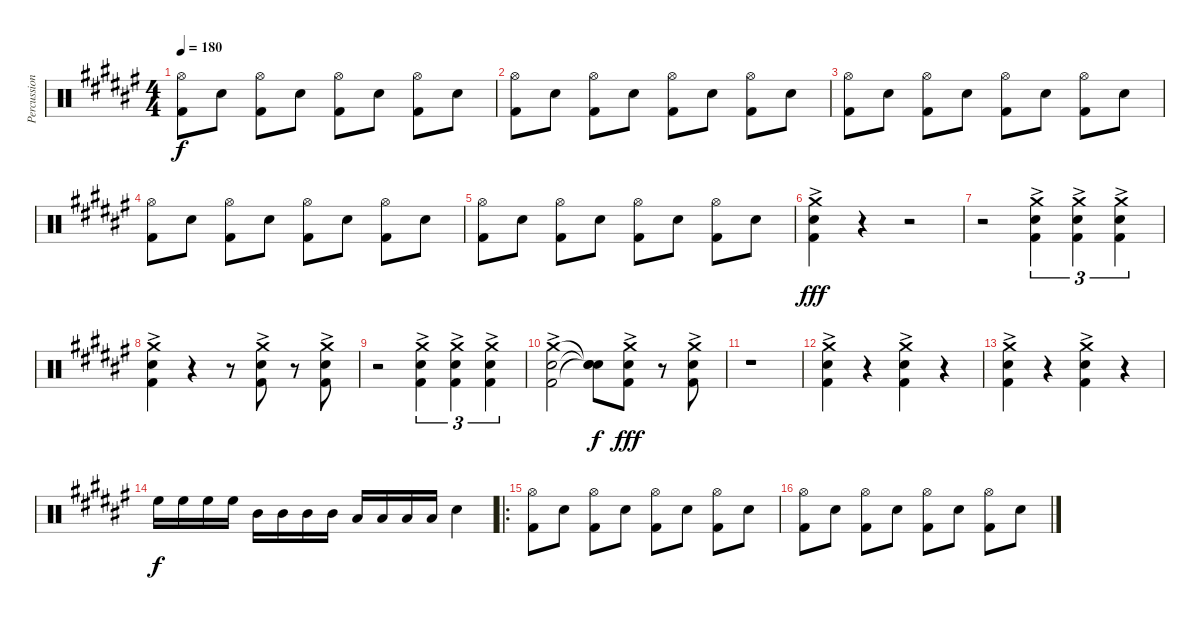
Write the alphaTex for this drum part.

\track ("Percussion" "Percussion") {instrument percussion}
\staff {score}
\articulation defaults
\ts (4 4)
\tempo 180
\clef neutral
\ks f#
("Hi-Hat (open)" "Kick (hit) 2").8{dy f} "Snare (hit) 2".8 ("Hi-Hat (open)" "Kick (hit) 2").8 "Snare (hit) 2".8 ("Hi-Hat (open)" "Kick (hit) 2").8 "Snare (hit) 2".8 ("Hi-Hat (open)" "Kick (hit) 2").8 "Snare (hit) 2".8 |
("Hi-Hat (open)" "Kick (hit) 2").8 "Snare (hit) 2".8 ("Hi-Hat (open)" "Kick (hit) 2").8 "Snare (hit) 2".8 ("Hi-Hat (open)" "Kick (hit) 2").8 "Snare (hit) 2".8 ("Hi-Hat (open)" "Kick (hit) 2").8 "Snare (hit) 2".8 |
("Hi-Hat (open)" "Kick (hit) 2").8 "Snare (hit) 2".8 ("Hi-Hat (open)" "Kick (hit) 2").8 "Snare (hit) 2".8 ("Hi-Hat (open)" "Kick (hit) 2").8 "Snare (hit) 2".8 ("Hi-Hat (open)" "Kick (hit) 2").8 "Snare (hit) 2".8 |
("Hi-Hat (open)" "Kick (hit) 2").8 "Snare (hit) 2".8 ("Hi-Hat (open)" "Kick (hit) 2").8 "Snare (hit) 2".8 ("Hi-Hat (open)" "Kick (hit) 2").8 "Snare (hit) 2".8 ("Hi-Hat (open)" "Kick (hit) 2").8 "Snare (hit) 2".8 |
("Hi-Hat (open)" "Kick (hit) 2").8 "Snare (hit) 2".8 ("Hi-Hat (open)" "Kick (hit) 2").8 "Snare (hit) 2".8 ("Hi-Hat (open)" "Kick (hit) 2").8 "Snare (hit) 2".8 ("Hi-Hat (open)" "Kick (hit) 2").8 "Snare (hit) 2".8 |
("Crash medium (hit)"{ac} "Snare (hit) 2"{ac} "Kick (hit) 2"{ac}).4{dy fff} r.4 r.2 |
r.2 ("Crash medium (hit)"{ac} "Snare (hit) 2"{ac} "Kick (hit) 2"{ac}).4{tu (3 2)} ("Crash medium (hit)"{ac} "Snare (hit) 2"{ac} "Kick (hit) 2"{ac}).4{tu (3 2)} ("Crash medium (hit)"{ac} "Snare (hit) 2"{ac} "Kick (hit) 2"{ac}).4{tu (3 2)} |
("Crash medium (hit)"{ac} "Snare (hit) 2"{ac} "Kick (hit) 2"{ac}).4 r.4 r.8 ("Crash medium (hit)"{ac} "Snare (hit) 2"{ac} "Kick (hit) 2"{ac}).8 r.8 ("Crash medium (hit)"{ac} "Snare (hit) 2"{ac} "Kick (hit) 2"{ac}).8 |
r.2 ("Crash medium (hit)"{ac} "Snare (hit) 2"{ac} "Kick (hit) 2"{ac}).4{tu (3 2)} ("Crash medium (hit)"{ac} "Snare (hit) 2"{ac} "Kick (hit) 2"{ac}).4{tu (3 2)} ("Crash medium (hit)"{ac} "Snare (hit) 2"{ac} "Kick (hit) 2"{ac}).4{tu (3 2)} |
("Crash medium (hit)"{ac} "Snare (hit) 2"{ac} "Kick (hit) 2"{ac}).2 ("Snare (hit)"{t} "Snare (hit)"{t} "Snare (hit)"{t}).8{dy f} ("Crash medium (hit)"{ac} "Snare (hit) 2"{ac} "Kick (hit) 2"{ac}).8{dy fff} r.8 ("Crash medium (hit)"{ac} "Snare (hit) 2"{ac} "Kick (hit) 2"{ac}).8 |
r.1 |
("Crash medium (hit)"{ac} "Snare (hit) 2"{ac} "Kick (hit) 2"{ac}).4 r.4 ("Crash medium (hit)"{ac} "Snare (hit) 2"{ac} "Kick (hit) 2"{ac}).4 r.4 |
("Crash medium (hit)"{ac} "Snare (hit) 2"{ac} "Kick (hit) 2"{ac}).4 r.4 ("Crash medium (hit)"{ac} "Snare (hit) 2"{ac} "Kick (hit) 2"{ac}).4 r.4 |
"High Floor Tom (hit)".16{dy f} "High Floor Tom (hit)".16 "High Floor Tom (hit)".16 "High Floor Tom (hit)".16 "Mid Tom (hit)".16 "Mid Tom (hit)".16 "Mid Tom (hit)".16 "Mid Tom (hit)".16 "Low Floor Tom (hit)".16 "Low Floor Tom (hit)".16 "Low Floor Tom (hit)".16 "Low Floor Tom (hit)".16 "Snare (hit) 2".4 |
\ro
("Hi-Hat (open)" "Kick (hit) 2").8 "Snare (hit) 2".8 ("Hi-Hat (open)" "Kick (hit) 2").8 "Snare (hit) 2".8 ("Hi-Hat (open)" "Kick (hit) 2").8 "Snare (hit) 2".8 ("Hi-Hat (open)" "Kick (hit) 2").8 "Snare (hit) 2".8 |
("Hi-Hat (open)" "Kick (hit) 2").8 "Snare (hit) 2".8 ("Hi-Hat (open)" "Kick (hit) 2").8 "Snare (hit) 2".8 ("Hi-Hat (open)" "Kick (hit) 2").8 "Snare (hit) 2".8 ("Hi-Hat (open)" "Kick (hit) 2").8 "Snare (hit) 2".8
